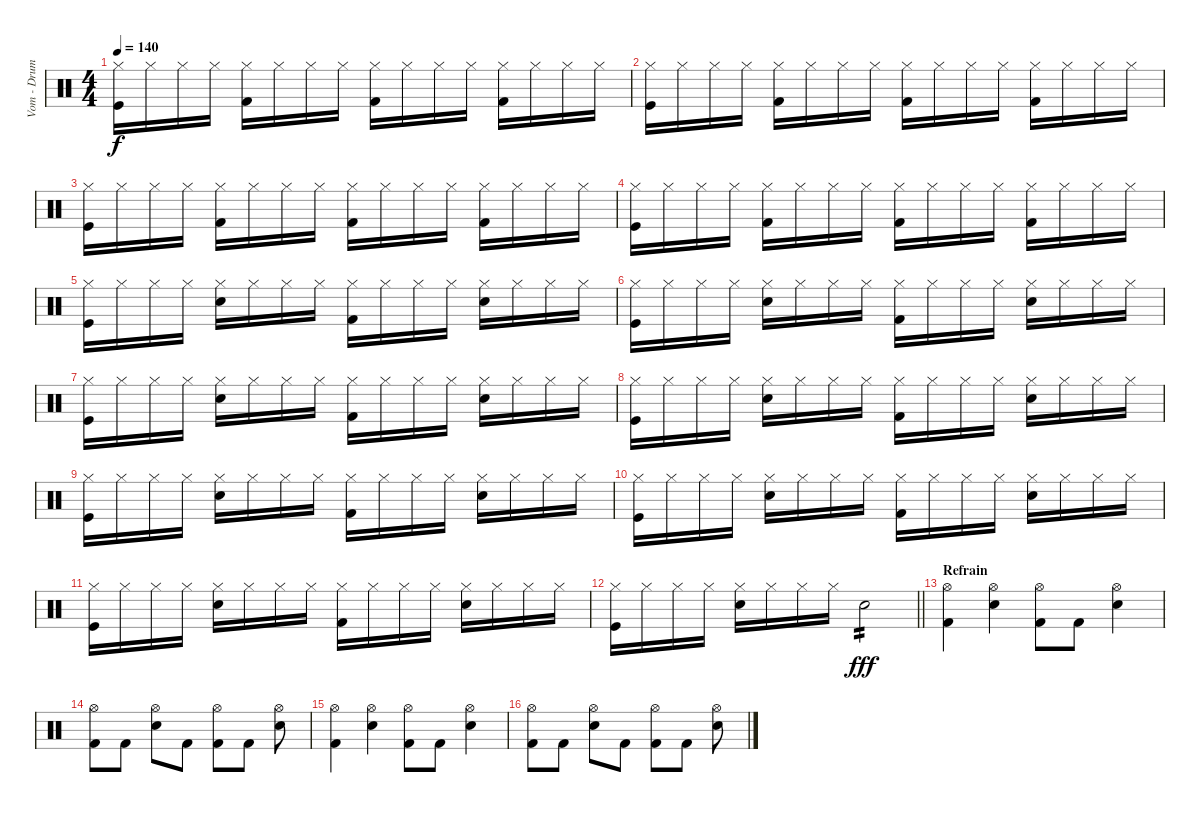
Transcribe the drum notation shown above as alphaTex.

\track ("Vom - Drums" "Vom - Drum") {instrument percussion}
\staff {score}
\articulation defaults
\ts (4 4)
\tempo 140
\clef neutral
\ks c
("Hi-Hat (closed)" "Kick (hit)").16{dy f} "Hi-Hat (closed)".16 "Hi-Hat (closed)".16 "Hi-Hat (closed)".16 ("Hi-Hat (closed)" "Kick (hit) 2").16 "Hi-Hat (closed)".16 "Hi-Hat (closed)".16 "Hi-Hat (closed)".16 ("Hi-Hat (closed)" "Kick (hit) 2").16 "Hi-Hat (closed)".16 "Hi-Hat (closed)".16 "Hi-Hat (closed)".16 ("Hi-Hat (closed)" "Kick (hit) 2").16 "Hi-Hat (closed)".16 "Hi-Hat (closed)".16 "Hi-Hat (closed)".16 |
("Hi-Hat (closed)" "Kick (hit)").16 "Hi-Hat (closed)".16 "Hi-Hat (closed)".16 "Hi-Hat (closed)".16 ("Hi-Hat (closed)" "Kick (hit) 2").16 "Hi-Hat (closed)".16 "Hi-Hat (closed)".16 "Hi-Hat (closed)".16 ("Hi-Hat (closed)" "Kick (hit) 2").16 "Hi-Hat (closed)".16 "Hi-Hat (closed)".16 "Hi-Hat (closed)".16 ("Hi-Hat (closed)" "Kick (hit) 2").16 "Hi-Hat (closed)".16 "Hi-Hat (closed)".16 "Hi-Hat (closed)".16 |
("Hi-Hat (closed)" "Kick (hit)").16 "Hi-Hat (closed)".16 "Hi-Hat (closed)".16 "Hi-Hat (closed)".16 ("Hi-Hat (closed)" "Kick (hit) 2").16 "Hi-Hat (closed)".16 "Hi-Hat (closed)".16 "Hi-Hat (closed)".16 ("Hi-Hat (closed)" "Kick (hit) 2").16 "Hi-Hat (closed)".16 "Hi-Hat (closed)".16 "Hi-Hat (closed)".16 ("Hi-Hat (closed)" "Kick (hit) 2").16 "Hi-Hat (closed)".16 "Hi-Hat (closed)".16 "Hi-Hat (closed)".16 |
("Hi-Hat (closed)" "Kick (hit)").16 "Hi-Hat (closed)".16 "Hi-Hat (closed)".16 "Hi-Hat (closed)".16 ("Hi-Hat (closed)" "Kick (hit) 2").16 "Hi-Hat (closed)".16 "Hi-Hat (closed)".16 "Hi-Hat (closed)".16 ("Hi-Hat (closed)" "Kick (hit) 2").16 "Hi-Hat (closed)".16 "Hi-Hat (closed)".16 "Hi-Hat (closed)".16 ("Hi-Hat (closed)" "Kick (hit) 2").16 "Hi-Hat (closed)".16 "Hi-Hat (closed)".16 "Hi-Hat (closed)".16 |
("Hi-Hat (closed)" "Kick (hit)").16 "Hi-Hat (closed)".16 "Hi-Hat (closed)".16 "Hi-Hat (closed)".16 ("Hi-Hat (closed)" "Snare (hit) 2").16 "Hi-Hat (closed)".16 "Hi-Hat (closed)".16 "Hi-Hat (closed)".16 ("Hi-Hat (closed)" "Kick (hit) 2").16 "Hi-Hat (closed)".16 "Hi-Hat (closed)".16 "Hi-Hat (closed)".16 ("Hi-Hat (closed)" "Snare (hit) 2").16 "Hi-Hat (closed)".16 "Hi-Hat (closed)".16 "Hi-Hat (closed)".16 |
("Hi-Hat (closed)" "Kick (hit)").16 "Hi-Hat (closed)".16 "Hi-Hat (closed)".16 "Hi-Hat (closed)".16 ("Hi-Hat (closed)" "Snare (hit) 2").16 "Hi-Hat (closed)".16 "Hi-Hat (closed)".16 "Hi-Hat (closed)".16 ("Hi-Hat (closed)" "Kick (hit) 2").16 "Hi-Hat (closed)".16 "Hi-Hat (closed)".16 "Hi-Hat (closed)".16 ("Hi-Hat (closed)" "Snare (hit) 2").16 "Hi-Hat (closed)".16 "Hi-Hat (closed)".16 "Hi-Hat (closed)".16 |
("Hi-Hat (closed)" "Kick (hit)").16 "Hi-Hat (closed)".16 "Hi-Hat (closed)".16 "Hi-Hat (closed)".16 ("Hi-Hat (closed)" "Snare (hit) 2").16 "Hi-Hat (closed)".16 "Hi-Hat (closed)".16 "Hi-Hat (closed)".16 ("Hi-Hat (closed)" "Kick (hit) 2").16 "Hi-Hat (closed)".16 "Hi-Hat (closed)".16 "Hi-Hat (closed)".16 ("Hi-Hat (closed)" "Snare (hit) 2").16 "Hi-Hat (closed)".16 "Hi-Hat (closed)".16 "Hi-Hat (closed)".16 |
("Hi-Hat (closed)" "Kick (hit)").16 "Hi-Hat (closed)".16 "Hi-Hat (closed)".16 "Hi-Hat (closed)".16 ("Hi-Hat (closed)" "Snare (hit) 2").16 "Hi-Hat (closed)".16 "Hi-Hat (closed)".16 "Hi-Hat (closed)".16 ("Hi-Hat (closed)" "Kick (hit) 2").16 "Hi-Hat (closed)".16 "Hi-Hat (closed)".16 "Hi-Hat (closed)".16 ("Hi-Hat (closed)" "Snare (hit) 2").16 "Hi-Hat (closed)".16 "Hi-Hat (closed)".16 "Hi-Hat (closed)".16 |
("Hi-Hat (closed)" "Kick (hit)").16 "Hi-Hat (closed)".16 "Hi-Hat (closed)".16 "Hi-Hat (closed)".16 ("Hi-Hat (closed)" "Snare (hit) 2").16 "Hi-Hat (closed)".16 "Hi-Hat (closed)".16 "Hi-Hat (closed)".16 ("Hi-Hat (closed)" "Kick (hit) 2").16 "Hi-Hat (closed)".16 "Hi-Hat (closed)".16 "Hi-Hat (closed)".16 ("Hi-Hat (closed)" "Snare (hit) 2").16 "Hi-Hat (closed)".16 "Hi-Hat (closed)".16 "Hi-Hat (closed)".16 |
("Hi-Hat (closed)" "Kick (hit)").16 "Hi-Hat (closed)".16 "Hi-Hat (closed)".16 "Hi-Hat (closed)".16 ("Hi-Hat (closed)" "Snare (hit) 2").16 "Hi-Hat (closed)".16 "Hi-Hat (closed)".16 "Hi-Hat (closed)".16 ("Hi-Hat (closed)" "Kick (hit) 2").16 "Hi-Hat (closed)".16 "Hi-Hat (closed)".16 "Hi-Hat (closed)".16 ("Hi-Hat (closed)" "Snare (hit) 2").16 "Hi-Hat (closed)".16 "Hi-Hat (closed)".16 "Hi-Hat (closed)".16 |
("Hi-Hat (closed)" "Kick (hit)").16 "Hi-Hat (closed)".16 "Hi-Hat (closed)".16 "Hi-Hat (closed)".16 ("Hi-Hat (closed)" "Snare (hit) 2").16 "Hi-Hat (closed)".16 "Hi-Hat (closed)".16 "Hi-Hat (closed)".16 ("Hi-Hat (closed)" "Kick (hit) 2").16 "Hi-Hat (closed)".16 "Hi-Hat (closed)".16 "Hi-Hat (closed)".16 ("Hi-Hat (closed)" "Snare (hit) 2").16 "Hi-Hat (closed)".16 "Hi-Hat (closed)".16 "Hi-Hat (closed)".16 |
\barLineRight lightlight
("Hi-Hat (closed)" "Kick (hit)").16 "Hi-Hat (closed)".16 "Hi-Hat (closed)".16 "Hi-Hat (closed)".16 ("Hi-Hat (closed)" "Snare (hit) 2").16 "Hi-Hat (closed)".16 "Hi-Hat (closed)".16 "Hi-Hat (closed)".16 "Snare (hit) 2".2{tp 2 dy fff} |
\section ("" "Refrain")
("Hi-Hat (open)" "Kick (hit) 2").4 ("Hi-Hat (open)" "Snare (hit) 2").4 ("Hi-Hat (open)" "Kick (hit) 2").8 "Kick (hit) 2".8 ("Hi-Hat (open)" "Snare (hit) 2").4 |
("Hi-Hat (open)" "Kick (hit) 2").8 "Kick (hit) 2".8 ("Hi-Hat (open)" "Snare (hit) 2").8 "Kick (hit) 2".8 ("Hi-Hat (open)" "Kick (hit) 2").8 "Kick (hit) 2".8 ("Hi-Hat (open)" "Snare (hit) 2").8 |
("Hi-Hat (open)" "Kick (hit) 2").4 ("Hi-Hat (open)" "Snare (hit) 2").4 ("Hi-Hat (open)" "Kick (hit) 2").8 "Kick (hit) 2".8 ("Hi-Hat (open)" "Snare (hit) 2").4 |
("Hi-Hat (open)" "Kick (hit) 2").8 "Kick (hit) 2".8 ("Hi-Hat (open)" "Snare (hit) 2").8 "Kick (hit) 2".8 ("Hi-Hat (open)" "Kick (hit) 2").8 "Kick (hit) 2".8 ("Hi-Hat (open)" "Snare (hit) 2").8
